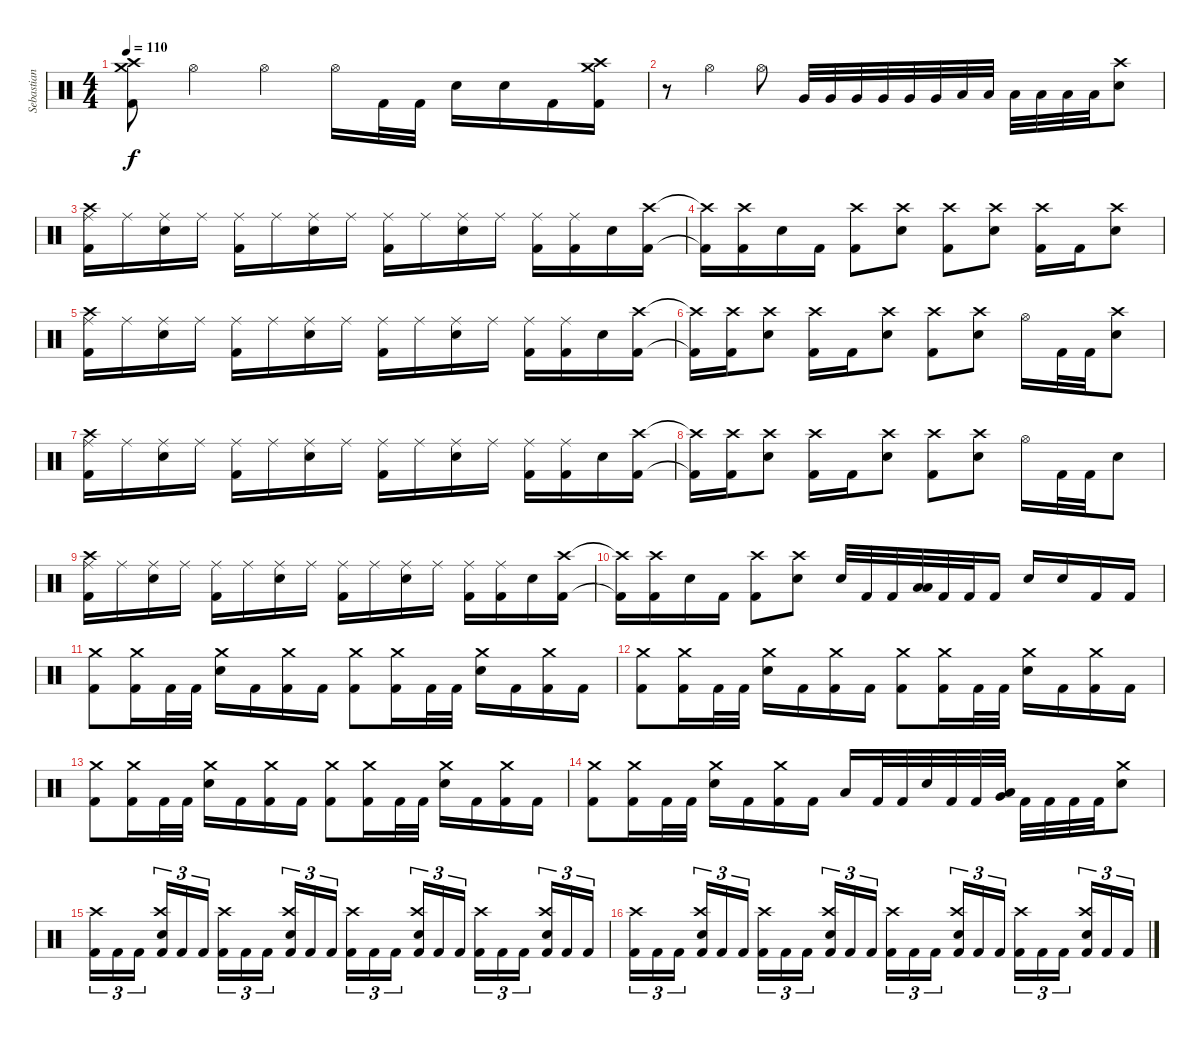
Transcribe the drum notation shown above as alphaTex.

\track ("Sebastian H." "Sebastian ") {instrument percussion}
\staff {score}
\articulation defaults
\ts (4 4)
\tempo 110
\clef neutral
\ks c
("Kick (hit) 2" "Crash medium (hit)" "Crash high (hit)").8{dy f} "Hi-Hat (open)".4 "Hi-Hat (open)".4 "Hi-Hat (open)".16 "Kick (hit) 2".32 "Kick (hit) 2".32 "Electric Snare (hit)".16 "Electric Snare (hit)".16 "Kick (hit) 2".16 ("Kick (hit) 2" "Crash medium (hit)" "Crash high (hit)").16 |
r.8 "Hi-Hat (open)".4 "Hi-Hat (open)".8 "Very Low Tom (hit)".32 "Very Low Tom (hit)".32 "Very Low Tom (hit)".32 "Very Low Tom (hit)".32 "Very Low Tom (hit)".32 "Very Low Tom (hit)".32 "Low Floor Tom (hit)".32 "Low Floor Tom (hit)".32 "Low Floor Tom (hit)".32 "Low Floor Tom (hit)".32 "Low Floor Tom (hit)".32 "Low Floor Tom (hit)".32 ("Electric Snare (hit)" "Crash high (hit)").8 |
("Ride (middle)" "Kick (hit) 2" "Crash high (hit)").16 "Ride (middle)".16 ("Ride (middle)" "Electric Snare (hit)").16 "Ride (middle)".16 ("Ride (middle)" "Kick (hit) 2").16 "Ride (middle)".16 ("Ride (middle)" "Electric Snare (hit)").16 "Ride (middle)".16 ("Ride (middle)" "Kick (hit) 2").16 "Ride (middle)".16 ("Ride (middle)" "Electric Snare (hit)").16 "Ride (middle)".16 ("Ride (middle)" "Kick (hit) 2").16 ("Ride (middle)" "Kick (hit) 2").16 "Electric Snare (hit)".16 ("Crash high (hit)" "Kick (hit) 2").16 |
("Crash high (hit)"{t} "Kick (hit) 2"{t}).16 ("Crash high (hit)" "Kick (hit) 2").16 "Electric Snare (hit)".16 "Kick (hit) 2".16 ("Crash high (hit)" "Kick (hit) 2").8 ("Crash high (hit)" "Electric Snare (hit)").8 ("Crash high (hit)" "Kick (hit) 2").8 ("Crash high (hit)" "Electric Snare (hit)").8 ("Crash high (hit)" "Kick (hit) 2").16 "Kick (hit) 2".16 ("Crash high (hit)" "Electric Snare (hit)").8 |
("Ride (middle)" "Kick (hit) 2" "Crash high (hit)").16 "Ride (middle)".16 ("Ride (middle)" "Electric Snare (hit)").16 "Ride (middle)".16 ("Ride (middle)" "Kick (hit) 2").16 "Ride (middle)".16 ("Ride (middle)" "Electric Snare (hit)").16 "Ride (middle)".16 ("Ride (middle)" "Kick (hit) 2").16 "Ride (middle)".16 ("Ride (middle)" "Electric Snare (hit)").16 "Ride (middle)".16 ("Ride (middle)" "Kick (hit) 2").16 ("Ride (middle)" "Kick (hit) 2").16 "Electric Snare (hit)".16 ("Crash high (hit)" "Kick (hit) 2").16 |
("Crash high (hit)"{t} "Kick (hit) 2"{t}).16 ("Crash high (hit)" "Kick (hit) 2").16 ("Crash high (hit)" "Electric Snare (hit)").8 ("Crash high (hit)" "Kick (hit) 2").16 "Kick (hit) 2".16 ("Crash high (hit)" "Electric Snare (hit)").8 ("Crash high (hit)" "Kick (hit) 2").8 ("Crash high (hit)" "Electric Snare (hit)").8 "Hi-Hat (open)".16 "Kick (hit) 2".32 "Kick (hit) 2".32 ("Crash high (hit)" "Electric Snare (hit)").8 |
("Ride (middle)" "Kick (hit) 2" "Crash high (hit)").16 "Ride (middle)".16 ("Ride (middle)" "Electric Snare (hit)").16 "Ride (middle)".16 ("Ride (middle)" "Kick (hit) 2").16 "Ride (middle)".16 ("Ride (middle)" "Electric Snare (hit)").16 "Ride (middle)".16 ("Ride (middle)" "Kick (hit) 2").16 "Ride (middle)".16 ("Ride (middle)" "Electric Snare (hit)").16 "Ride (middle)".16 ("Ride (middle)" "Kick (hit) 2").16 ("Ride (middle)" "Kick (hit) 2").16 "Electric Snare (hit)".16 ("Crash high (hit)" "Kick (hit) 2").16 |
("Crash high (hit)"{t} "Kick (hit) 2"{t}).16 ("Crash high (hit)" "Kick (hit) 2").16 ("Crash high (hit)" "Electric Snare (hit)").8 ("Crash high (hit)" "Kick (hit) 2").16 "Kick (hit) 2".16 ("Crash high (hit)" "Electric Snare (hit)").8 ("Crash high (hit)" "Kick (hit) 2").8 ("Crash high (hit)" "Electric Snare (hit)").8 "Hi-Hat (open)".16 "Kick (hit) 2".32 "Kick (hit) 2".32 "Electric Snare (hit)".8 |
("Ride (middle)" "Kick (hit) 2" "Crash high (hit)").16 "Ride (middle)".16 ("Ride (middle)" "Electric Snare (hit)").16 "Ride (middle)".16 ("Ride (middle)" "Kick (hit) 2").16 "Ride (middle)".16 ("Ride (middle)" "Electric Snare (hit)").16 "Ride (middle)".16 ("Ride (middle)" "Kick (hit) 2").16 "Ride (middle)".16 ("Ride (middle)" "Electric Snare (hit)").16 "Ride (middle)".16 ("Ride (middle)" "Kick (hit) 2").16 ("Ride (middle)" "Kick (hit) 2").16 "Electric Snare (hit)".16 ("Crash high (hit)" "Kick (hit) 2").16 |
("Crash high (hit)"{t} "Kick (hit) 2"{t}).16 ("Crash high (hit)" "Kick (hit) 2").16 "Electric Snare (hit)".16 "Kick (hit) 2".16 ("Crash high (hit)" "Kick (hit) 2").8 ("Crash high (hit)" "Electric Snare (hit)").8 "Electric Snare (hit)".32 "Kick (hit) 2".32 "Kick (hit) 2".32 ("Low Floor Tom (hit)" "Low Tom (hit)").32 "Kick (hit) 2".32 "Kick (hit) 2".32 "Kick (hit) 2".16 "Electric Snare (hit)".16 "Electric Snare (hit)".16 "Kick (hit) 2".16 "Kick (hit) 2".16 |
("Crash medium (hit)" "Kick (hit) 2").8 ("Crash medium (hit)" "Kick (hit) 2").16 "Kick (hit) 2".32 "Kick (hit) 2".32 ("Crash medium (hit)" "Electric Snare (hit)").16 "Kick (hit) 2".16 ("Crash medium (hit)" "Kick (hit) 2").16 "Kick (hit) 2".16 ("Crash medium (hit)" "Kick (hit) 2").8 ("Crash medium (hit)" "Kick (hit) 2").16 "Kick (hit) 2".32 "Kick (hit) 2".32 ("Crash medium (hit)" "Electric Snare (hit)").16 "Kick (hit) 2".16 ("Crash medium (hit)" "Kick (hit) 2").16 "Kick (hit) 2".16 |
("Crash medium (hit)" "Kick (hit) 2").8 ("Crash medium (hit)" "Kick (hit) 2").16 "Kick (hit) 2".32 "Kick (hit) 2".32 ("Crash medium (hit)" "Electric Snare (hit)").16 "Kick (hit) 2".16 ("Crash medium (hit)" "Kick (hit) 2").16 "Kick (hit) 2".16 ("Crash medium (hit)" "Kick (hit) 2").8 ("Crash medium (hit)" "Kick (hit) 2").16 "Kick (hit) 2".32 "Kick (hit) 2".32 ("Crash medium (hit)" "Electric Snare (hit)").16 "Kick (hit) 2".16 ("Crash medium (hit)" "Kick (hit) 2").16 "Kick (hit) 2".16 |
("Crash medium (hit)" "Kick (hit) 2").8 ("Crash medium (hit)" "Kick (hit) 2").16 "Kick (hit) 2".32 "Kick (hit) 2".32 ("Crash medium (hit)" "Electric Snare (hit)").16 "Kick (hit) 2".16 ("Crash medium (hit)" "Kick (hit) 2").16 "Kick (hit) 2".16 ("Crash medium (hit)" "Kick (hit) 2").8 ("Crash medium (hit)" "Kick (hit) 2").16 "Kick (hit) 2".32 "Kick (hit) 2".32 ("Crash medium (hit)" "Electric Snare (hit)").16 "Kick (hit) 2".16 ("Crash medium (hit)" "Kick (hit) 2").16 "Kick (hit) 2".16 |
("Crash medium (hit)" "Kick (hit) 2").8 ("Crash medium (hit)" "Kick (hit) 2").16 "Kick (hit) 2".32 "Kick (hit) 2".32 ("Crash medium (hit)" "Electric Snare (hit)").16 "Kick (hit) 2".16 ("Crash medium (hit)" "Kick (hit) 2").16 "Kick (hit) 2".16 "Low Tom (hit)".16 "Kick (hit) 2".32 "Kick (hit) 2".32 "Electric Snare (hit)".32 "Kick (hit) 2".32 "Kick (hit) 2".32 ("Very Low Tom (hit)" "Low Floor Tom (hit)").32 "Kick (hit) 2".32 "Kick (hit) 2".32 "Kick (hit) 2".32 "Kick (hit) 2".32 ("Crash medium (hit)" "Electric Snare (hit)").8 |
("Crash high (hit)" "Kick (hit) 2").16{tu (3 2)} "Kick (hit) 2".16{tu (3 2)} "Kick (hit) 2".16{tu (3 2)} ("Crash high (hit)" "Electric Snare (hit)" "Kick (hit) 2").16{tu (3 2)} "Kick (hit) 2".16{tu (3 2)} "Kick (hit) 2".16{tu (3 2)} ("Crash high (hit)" "Kick (hit) 2").16{tu (3 2)} "Kick (hit) 2".16{tu (3 2)} "Kick (hit) 2".16{tu (3 2)} ("Electric Snare (hit)" "Crash high (hit)" "Kick (hit) 2").16{tu (3 2)} "Kick (hit) 2".16{tu (3 2)} "Kick (hit) 2".16{tu (3 2)} ("Crash high (hit)" "Kick (hit) 2").16{tu (3 2)} "Kick (hit) 2".16{tu (3 2)} "Kick (hit) 2".16{tu (3 2)} ("Electric Snare (hit)" "Crash high (hit)" "Kick (hit) 2").16{tu (3 2)} "Kick (hit) 2".16{tu (3 2)} "Kick (hit) 2".16{tu (3 2)} ("Crash high (hit)" "Kick (hit) 2").16{tu (3 2)} "Kick (hit) 2".16{tu (3 2)} "Kick (hit) 2".16{tu (3 2)} ("Electric Snare (hit)" "Crash high (hit)" "Kick (hit) 2").16{tu (3 2)} "Kick (hit) 2".16{tu (3 2)} "Kick (hit) 2".16{tu (3 2)} |
("Crash high (hit)" "Kick (hit) 2").16{tu (3 2)} "Kick (hit) 2".16{tu (3 2)} "Kick (hit) 2".16{tu (3 2)} ("Crash high (hit)" "Electric Snare (hit)" "Kick (hit) 2").16{tu (3 2)} "Kick (hit) 2".16{tu (3 2)} "Kick (hit) 2".16{tu (3 2)} ("Crash high (hit)" "Kick (hit) 2").16{tu (3 2)} "Kick (hit) 2".16{tu (3 2)} "Kick (hit) 2".16{tu (3 2)} ("Electric Snare (hit)" "Crash high (hit)" "Kick (hit) 2").16{tu (3 2)} "Kick (hit) 2".16{tu (3 2)} "Kick (hit) 2".16{tu (3 2)} ("Crash high (hit)" "Kick (hit) 2").16{tu (3 2)} "Kick (hit) 2".16{tu (3 2)} "Kick (hit) 2".16{tu (3 2)} ("Electric Snare (hit)" "Crash high (hit)" "Kick (hit) 2").16{tu (3 2)} "Kick (hit) 2".16{tu (3 2)} "Kick (hit) 2".16{tu (3 2)} ("Crash high (hit)" "Kick (hit) 2").16{tu (3 2)} "Kick (hit) 2".16{tu (3 2)} "Kick (hit) 2".16{tu (3 2)} ("Electric Snare (hit)" "Crash high (hit)" "Kick (hit) 2").16{tu (3 2)} "Kick (hit) 2".16{tu (3 2)} "Kick (hit) 2".16{tu (3 2)}
